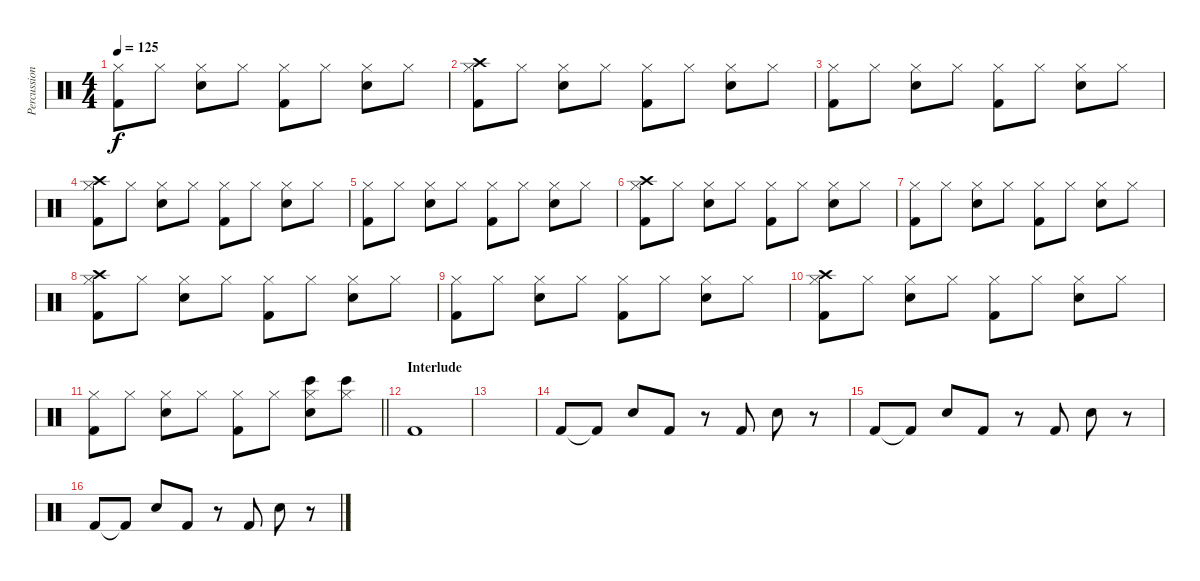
\track ("Percussion" "Percussion") {instrument percussion}
\staff {score}
\articulation defaults
\ts (4 4)
\tempo 125
\clef neutral
\ks c
("Hi-Hat (closed)" "Kick (hit) 2").8{dy f} "Hi-Hat (closed)".8 ("Hi-Hat (closed)" "Snare (hit) 2").8 "Hi-Hat (closed)".8 ("Hi-Hat (closed)" "Kick (hit) 2").8 "Hi-Hat (closed)".8 ("Hi-Hat (closed)" "Snare (hit) 2").8 "Hi-Hat (closed)".8 |
("Crash high (hit)" "Hi-Hat (closed)" "Kick (hit) 2").8 "Hi-Hat (closed)".8 ("Hi-Hat (closed)" "Snare (hit) 2").8 "Hi-Hat (closed)".8 ("Hi-Hat (closed)" "Kick (hit) 2").8 "Hi-Hat (closed)".8 ("Hi-Hat (closed)" "Snare (hit) 2").8 "Hi-Hat (closed)".8 |
("Hi-Hat (closed)" "Kick (hit) 2").8 "Hi-Hat (closed)".8 ("Hi-Hat (closed)" "Snare (hit) 2").8 "Hi-Hat (closed)".8 ("Hi-Hat (closed)" "Kick (hit) 2").8 "Hi-Hat (closed)".8 ("Hi-Hat (closed)" "Snare (hit) 2").8 "Hi-Hat (closed)".8 |
("Crash high (hit)" "Hi-Hat (closed)" "Kick (hit) 2").8 "Hi-Hat (closed)".8 ("Hi-Hat (closed)" "Snare (hit) 2").8 "Hi-Hat (closed)".8 ("Hi-Hat (closed)" "Kick (hit) 2").8 "Hi-Hat (closed)".8 ("Hi-Hat (closed)" "Snare (hit) 2").8 "Hi-Hat (closed)".8 |
("Hi-Hat (closed)" "Kick (hit) 2").8 "Hi-Hat (closed)".8 ("Hi-Hat (closed)" "Snare (hit) 2").8 "Hi-Hat (closed)".8 ("Hi-Hat (closed)" "Kick (hit) 2").8 "Hi-Hat (closed)".8 ("Hi-Hat (closed)" "Snare (hit) 2").8 "Hi-Hat (closed)".8 |
("Crash high (hit)" "Hi-Hat (closed)" "Kick (hit) 2").8 "Hi-Hat (closed)".8 ("Hi-Hat (closed)" "Snare (hit) 2").8 "Hi-Hat (closed)".8 ("Hi-Hat (closed)" "Kick (hit) 2").8 "Hi-Hat (closed)".8 ("Hi-Hat (closed)" "Snare (hit) 2").8 "Hi-Hat (closed)".8 |
("Hi-Hat (closed)" "Kick (hit) 2").8 "Hi-Hat (closed)".8 ("Hi-Hat (closed)" "Snare (hit) 2").8 "Hi-Hat (closed)".8 ("Hi-Hat (closed)" "Kick (hit) 2").8 "Hi-Hat (closed)".8 ("Hi-Hat (closed)" "Snare (hit) 2").8 "Hi-Hat (closed)".8 |
("Crash high (hit)" "Hi-Hat (closed)" "Kick (hit) 2").8 "Hi-Hat (closed)".8 ("Hi-Hat (closed)" "Snare (hit) 2").8 "Hi-Hat (closed)".8 ("Hi-Hat (closed)" "Kick (hit) 2").8 "Hi-Hat (closed)".8 ("Hi-Hat (closed)" "Snare (hit) 2").8 "Hi-Hat (closed)".8 |
("Hi-Hat (closed)" "Kick (hit) 2").8 "Hi-Hat (closed)".8 ("Hi-Hat (closed)" "Snare (hit) 2").8 "Hi-Hat (closed)".8 ("Hi-Hat (closed)" "Kick (hit) 2").8 "Hi-Hat (closed)".8 ("Hi-Hat (closed)" "Snare (hit) 2").8 "Hi-Hat (closed)".8 |
("Crash high (hit)" "Hi-Hat (closed)" "Kick (hit) 2").8 "Hi-Hat (closed)".8 ("Hi-Hat (closed)" "Snare (hit) 2").8 "Hi-Hat (closed)".8 ("Hi-Hat (closed)" "Kick (hit) 2").8 "Hi-Hat (closed)".8 ("Hi-Hat (closed)" "Snare (hit) 2").8 "Hi-Hat (closed)".8 |
\barLineRight lightlight
("Hi-Hat (closed)" "Kick (hit) 2").8 "Hi-Hat (closed)".8 ("Hi-Hat (closed)" "Snare (hit) 2").8 "Hi-Hat (closed)".8 ("Hi-Hat (closed)" "Kick (hit) 2").8 "Hi-Hat (closed)".8 ("Bongo High (hit)" "Hi-Hat (closed)" "Snare (hit) 2").8 ("Bongo High (hit)" "Hi-Hat (closed)").8 |
\section ("" "Interlude")
"Kick (hit) 2".1 |
|
"Kick (hit) 2".8 "Kick (hit) 2"{t}.8 "Snare (hit) 2".8 "Kick (hit) 2".8 r.8 "Kick (hit) 2".8 "Snare (hit) 2".8 r.8 |
"Kick (hit) 2".8 "Kick (hit) 2"{t}.8 "Snare (hit) 2".8 "Kick (hit) 2".8 r.8 "Kick (hit) 2".8 "Snare (hit) 2".8 r.8 |
"Kick (hit) 2".8 "Kick (hit) 2"{t}.8 "Snare (hit) 2".8 "Kick (hit) 2".8 r.8 "Kick (hit) 2".8 "Snare (hit) 2".8 r.8
